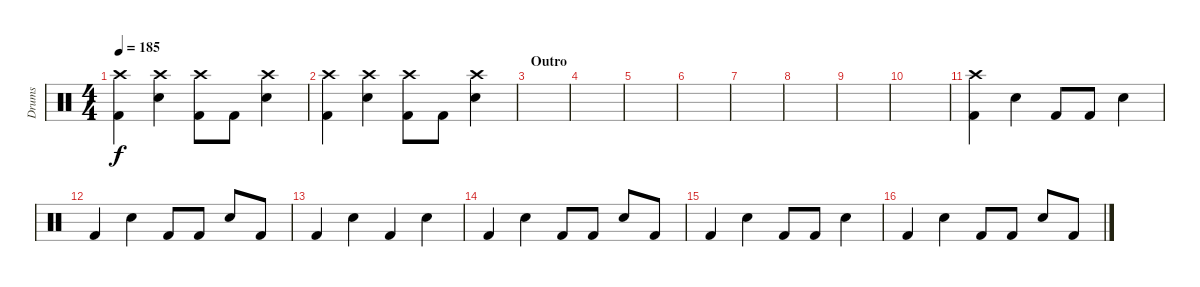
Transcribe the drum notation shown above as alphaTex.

\track ("Drums" "Drums") {instrument percussion}
\staff {score}
\articulation defaults
\ts (4 4)
\tempo 185
\clef neutral
\ks c
("Crash high (hit)" "Kick (hit) 2").4{dy f} ("Crash high (hit)" "Electric Snare (hit)").4 ("Crash high (hit)" "Kick (hit) 2").8 "Kick (hit) 2".8 ("Crash high (hit)" "Electric Snare (hit)").4 |
("Crash high (hit)" "Kick (hit) 2").4 ("Crash high (hit)" "Electric Snare (hit)").4 ("Crash high (hit)" "Kick (hit) 2").8 "Kick (hit) 2".8 ("Crash high (hit)" "Electric Snare (hit)").4 |
\section ("" "Outro")
|
|
|
|
|
|
|
|
("Crash high (hit)" "Kick (hit) 2").4 "Electric Snare (hit)".4 "Kick (hit) 2".8 "Kick (hit) 2".8 "Electric Snare (hit)".4 |
"Kick (hit) 2".4 "Electric Snare (hit)".4 "Kick (hit) 2".8 "Kick (hit) 2".8 "Electric Snare (hit)".8 "Kick (hit) 2".8 |
"Kick (hit) 2".4 "Electric Snare (hit)".4 "Kick (hit) 2".4 "Electric Snare (hit)".4 |
"Kick (hit) 2".4 "Electric Snare (hit)".4 "Kick (hit) 2".8 "Kick (hit) 2".8 "Electric Snare (hit)".8 "Kick (hit) 2".8 |
"Kick (hit) 2".4 "Electric Snare (hit)".4 "Kick (hit) 2".8 "Kick (hit) 2".8 "Electric Snare (hit)".4 |
"Kick (hit) 2".4 "Electric Snare (hit)".4 "Kick (hit) 2".8 "Kick (hit) 2".8 "Electric Snare (hit)".8 "Kick (hit) 2".8
